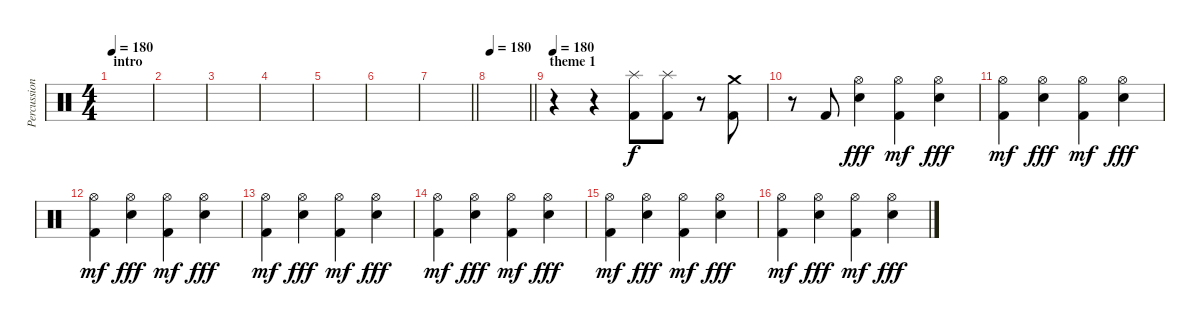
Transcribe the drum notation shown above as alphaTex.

\track ("Percussions" "Percussion") {instrument percussion}
\staff {score}
\articulation defaults
\ts (4 4)
\section ("" "intro")
\tempo 180
\tempo 90
\tempo 180
\clef neutral
\ks c
|
|
|
|
|
|
\barLineRight lightlight
|
\tempo 180
\barLineRight lightlight
|
\section ("" "theme 1")
\tempo 180
r.4 r.4 ("Splash (hit)" "Kick (hit) 2").8 ("Splash (hit)" "Kick (hit) 2").8 r.8 ("Crash medium (hit)" "Kick (hit) 2").8 |
r.8 "Kick (hit) 2".8 ("Hi-Hat (open)" "Electric Snare (hit)").4{dy fff} ("Hi-Hat (open)" "Kick (hit) 2").4{dy mf} ("Hi-Hat (open)" "Electric Snare (hit)").4{dy fff} |
("Hi-Hat (open)" "Kick (hit) 2").4{dy mf} ("Hi-Hat (open)" "Electric Snare (hit)").4{dy fff} ("Hi-Hat (open)" "Kick (hit) 2").4{dy mf} ("Hi-Hat (open)" "Electric Snare (hit)").4{dy fff} |
("Hi-Hat (open)" "Kick (hit) 2").4{dy mf} ("Hi-Hat (open)" "Electric Snare (hit)").4{dy fff} ("Hi-Hat (open)" "Kick (hit) 2").4{dy mf} ("Hi-Hat (open)" "Electric Snare (hit)").4{dy fff} |
("Hi-Hat (open)" "Kick (hit) 2").4{dy mf} ("Hi-Hat (open)" "Electric Snare (hit)").4{dy fff} ("Hi-Hat (open)" "Kick (hit) 2").4{dy mf} ("Hi-Hat (open)" "Electric Snare (hit)").4{dy fff} |
("Hi-Hat (open)" "Kick (hit) 2").4{dy mf} ("Hi-Hat (open)" "Electric Snare (hit)").4{dy fff} ("Hi-Hat (open)" "Kick (hit) 2").4{dy mf} ("Hi-Hat (open)" "Electric Snare (hit)").4{dy fff} |
("Hi-Hat (open)" "Kick (hit) 2").4{dy mf} ("Hi-Hat (open)" "Electric Snare (hit)").4{dy fff} ("Hi-Hat (open)" "Kick (hit) 2").4{dy mf} ("Hi-Hat (open)" "Electric Snare (hit)").4{dy fff} |
("Hi-Hat (open)" "Kick (hit) 2").4{dy mf} ("Hi-Hat (open)" "Electric Snare (hit)").4{dy fff} ("Hi-Hat (open)" "Kick (hit) 2").4{dy mf} ("Hi-Hat (open)" "Electric Snare (hit)").4{dy fff}
